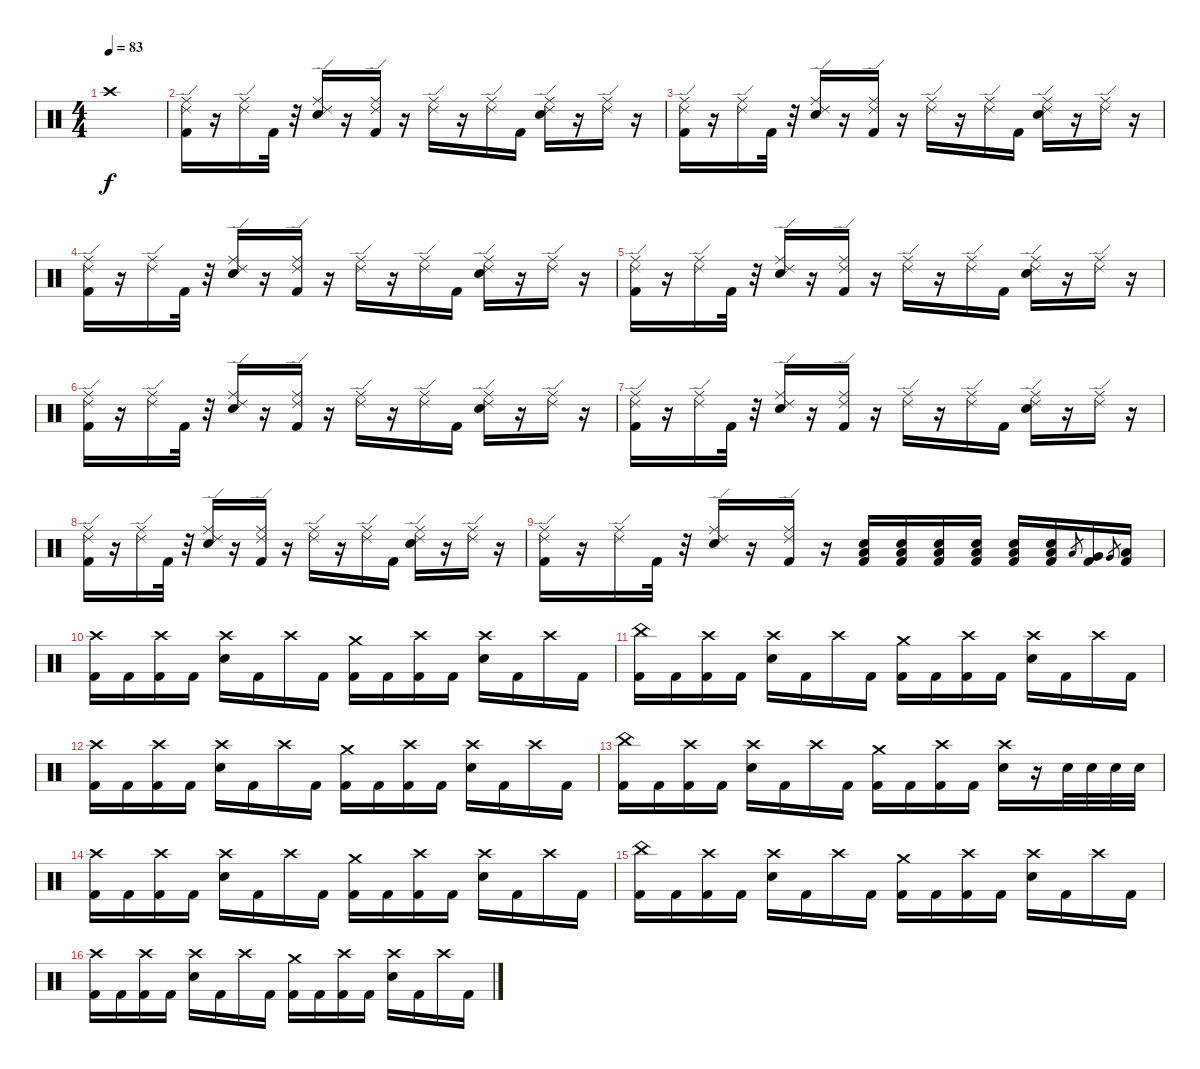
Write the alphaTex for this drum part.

\track "" {instrument percussion}
\staff {score}
\articulation defaults
\ts (4 4)
\tempo 83
\clef neutral
\ks c "Crash high (hit)".1{dy f}
|
("Ride (edge) 2" "Ride (middle)" "Kick (hit) 2").16 r.16 ("Ride (edge) 2" "Ride (middle)").16 "Kick (hit) 2".32 r.32 ("Ride (edge) 2" "Ride (middle)" "Snare (hit) 2").16 r.16 ("Ride (edge) 2" "Ride (middle)" "Kick (hit) 2").16 r.16 ("Ride (edge) 2" "Ride (middle)").16 r.16 ("Ride (edge) 2" "Ride (middle)").16 "Kick (hit) 2".16 ("Ride (edge) 2" "Ride (middle)" "Snare (hit) 2").16 r.16 ("Ride (edge) 2" "Ride (middle)").16 r.16 |
("Ride (edge) 2" "Ride (middle)" "Kick (hit) 2").16 r.16 ("Ride (edge) 2" "Ride (middle)").16 "Kick (hit) 2".32 r.32 ("Ride (edge) 2" "Ride (middle)" "Snare (hit) 2").16 r.16 ("Ride (edge) 2" "Ride (middle)" "Kick (hit) 2").16 r.16 ("Ride (edge) 2" "Ride (middle)").16 r.16 ("Ride (edge) 2" "Ride (middle)").16 "Kick (hit) 2".16 ("Ride (edge) 2" "Ride (middle)" "Snare (hit) 2").16 r.16 ("Ride (edge) 2" "Ride (middle)").16 r.16 |
("Ride (edge) 2" "Ride (middle)" "Kick (hit) 2").16 r.16 ("Ride (edge) 2" "Ride (middle)").16 "Kick (hit) 2".32 r.32 ("Ride (edge) 2" "Ride (middle)" "Snare (hit) 2").16 r.16 ("Ride (edge) 2" "Ride (middle)" "Kick (hit) 2").16 r.16 ("Ride (edge) 2" "Ride (middle)").16 r.16 ("Ride (edge) 2" "Ride (middle)").16 "Kick (hit) 2".16 ("Ride (edge) 2" "Ride (middle)" "Snare (hit) 2").16 r.16 ("Ride (edge) 2" "Ride (middle)").16 r.16 |
("Ride (edge) 2" "Ride (middle)" "Kick (hit) 2").16 r.16 ("Ride (edge) 2" "Ride (middle)").16 "Kick (hit) 2".32 r.32 ("Ride (edge) 2" "Ride (middle)" "Snare (hit) 2").16 r.16 ("Ride (edge) 2" "Ride (middle)" "Kick (hit) 2").16 r.16 ("Ride (edge) 2" "Ride (middle)").16 r.16 ("Ride (edge) 2" "Ride (middle)").16 "Kick (hit) 2".16 ("Ride (edge) 2" "Ride (middle)" "Snare (hit) 2").16 r.16 ("Ride (edge) 2" "Ride (middle)").16 r.16 |
("Ride (edge) 2" "Ride (middle)" "Kick (hit) 2").16 r.16 ("Ride (edge) 2" "Ride (middle)").16 "Kick (hit) 2".32 r.32 ("Ride (edge) 2" "Ride (middle)" "Snare (hit) 2").16 r.16 ("Ride (edge) 2" "Ride (middle)" "Kick (hit) 2").16 r.16 ("Ride (edge) 2" "Ride (middle)").16 r.16 ("Ride (edge) 2" "Ride (middle)").16 "Kick (hit) 2".16 ("Ride (edge) 2" "Ride (middle)" "Snare (hit) 2").16 r.16 ("Ride (edge) 2" "Ride (middle)").16 r.16 |
("Ride (edge) 2" "Ride (middle)" "Kick (hit) 2").16 r.16 ("Ride (edge) 2" "Ride (middle)").16 "Kick (hit) 2".32 r.32 ("Ride (edge) 2" "Ride (middle)" "Snare (hit) 2").16 r.16 ("Ride (edge) 2" "Ride (middle)" "Kick (hit) 2").16 r.16 ("Ride (edge) 2" "Ride (middle)").16 r.16 ("Ride (edge) 2" "Ride (middle)").16 "Kick (hit) 2".16 ("Ride (edge) 2" "Ride (middle)" "Snare (hit) 2").16 r.16 ("Ride (edge) 2" "Ride (middle)").16 r.16 |
("Ride (edge) 2" "Ride (middle)" "Kick (hit) 2").16 r.16 ("Ride (edge) 2" "Ride (middle)").16 "Kick (hit) 2".32 r.32 ("Ride (edge) 2" "Ride (middle)" "Snare (hit) 2").16 r.16 ("Ride (edge) 2" "Ride (middle)" "Kick (hit) 2").16 r.16 ("Ride (edge) 2" "Ride (middle)").16 r.16 ("Ride (edge) 2" "Ride (middle)").16 "Kick (hit) 2".16 ("Ride (edge) 2" "Ride (middle)" "Snare (hit) 2").16 r.16 ("Ride (edge) 2" "Ride (middle)").16 r.16 |
("Ride (edge) 2" "Ride (middle)" "Kick (hit) 2").16 r.16 ("Ride (edge) 2" "Ride (middle)").16 "Kick (hit) 2".32 r.32 ("Ride (edge) 2" "Ride (middle)" "Snare (hit) 2").16 r.16 ("Ride (edge) 2" "Ride (middle)" "Kick (hit) 2").16 r.16 ("Snare (hit) 2" "Low Tom (hit)" "Kick (hit) 2").16 ("Snare (hit) 2" "Low Tom (hit)" "Kick (hit) 2").16 ("Snare (hit) 2" "Low Tom (hit)" "Kick (hit) 2").16 ("Snare (hit) 2" "Low Tom (hit)" "Kick (hit) 2").16 ("Snare (hit) 2" "Low Tom (hit)" "Kick (hit) 2").16 ("Snare (hit) 2" "Low Tom (hit)" "Kick (hit) 2").16 "Low Floor Tom (hit)".8{gr} ("Very Low Tom (hit)" "Kick (hit) 2").16 "Very Low Tom (hit)".8{gr} ("Low Tom (hit)" "Kick (hit) 2").16 |
("Crash high (hit)" "Kick (hit) 2").16 "Kick (hit) 2".16 ("Crash high (hit)" "Kick (hit) 2").16 "Kick (hit) 2".16 ("Crash high (hit)" "Snare (hit) 2").16 "Kick (hit) 2".16 "Crash high (hit)".16 "Kick (hit) 2".16 ("Crash medium (hit)" "Kick (hit) 2").16 "Kick (hit) 2".16 ("Crash high (hit)" "Kick (hit) 2").16 "Kick (hit) 2".16 ("Crash high (hit)" "Snare (hit) 2").16 "Kick (hit) 2".16 "Crash high (hit)".16 "Kick (hit) 2".16 |
("China (hit)" "Kick (hit) 2").16 "Kick (hit) 2".16 ("Crash high (hit)" "Kick (hit) 2").16 "Kick (hit) 2".16 ("Crash high (hit)" "Snare (hit) 2").16 "Kick (hit) 2".16 "Crash high (hit)".16 "Kick (hit) 2".16 ("Crash medium (hit)" "Kick (hit) 2").16 "Kick (hit) 2".16 ("Crash high (hit)" "Kick (hit) 2").16 "Kick (hit) 2".16 ("Crash high (hit)" "Snare (hit) 2").16 "Kick (hit) 2".16 "Crash high (hit)".16 "Kick (hit) 2".16 |
("Crash high (hit)" "Kick (hit) 2").16 "Kick (hit) 2".16 ("Crash high (hit)" "Kick (hit) 2").16 "Kick (hit) 2".16 ("Crash high (hit)" "Snare (hit) 2").16 "Kick (hit) 2".16 "Crash high (hit)".16 "Kick (hit) 2".16 ("Crash medium (hit)" "Kick (hit) 2").16 "Kick (hit) 2".16 ("Crash high (hit)" "Kick (hit) 2").16 "Kick (hit) 2".16 ("Crash high (hit)" "Snare (hit) 2").16 "Kick (hit) 2".16 "Crash high (hit)".16 "Kick (hit) 2".16 |
("China (hit)" "Kick (hit) 2").16 "Kick (hit) 2".16 ("Crash high (hit)" "Kick (hit) 2").16 "Kick (hit) 2".16 ("Crash high (hit)" "Snare (hit) 2").16 "Kick (hit) 2".16 "Crash high (hit)".16 "Kick (hit) 2".16 ("Crash medium (hit)" "Kick (hit) 2").16 "Kick (hit) 2".16 ("Crash high (hit)" "Kick (hit) 2").16 "Kick (hit) 2".16 ("Crash high (hit)" "Snare (hit) 2").16 r.16 "Snare (hit) 2".32 "Snare (hit) 2".32 "Snare (hit) 2".32 "Snare (hit) 2".32 |
("Crash high (hit)" "Kick (hit) 2").16 "Kick (hit) 2".16 ("Crash high (hit)" "Kick (hit) 2").16 "Kick (hit) 2".16 ("Crash high (hit)" "Snare (hit) 2").16 "Kick (hit) 2".16 "Crash high (hit)".16 "Kick (hit) 2".16 ("Crash medium (hit)" "Kick (hit) 2").16 "Kick (hit) 2".16 ("Crash high (hit)" "Kick (hit) 2").16 "Kick (hit) 2".16 ("Crash high (hit)" "Snare (hit) 2").16 "Kick (hit) 2".16 "Crash high (hit)".16 "Kick (hit) 2".16 |
("China (hit)" "Kick (hit) 2").16 "Kick (hit) 2".16 ("Crash high (hit)" "Kick (hit) 2").16 "Kick (hit) 2".16 ("Crash high (hit)" "Snare (hit) 2").16 "Kick (hit) 2".16 "Crash high (hit)".16 "Kick (hit) 2".16 ("Crash medium (hit)" "Kick (hit) 2").16 "Kick (hit) 2".16 ("Crash high (hit)" "Kick (hit) 2").16 "Kick (hit) 2".16 ("Crash high (hit)" "Snare (hit) 2").16 "Kick (hit) 2".16 "Crash high (hit)".16 "Kick (hit) 2".16 |
("Crash high (hit)" "Kick (hit) 2").16 "Kick (hit) 2".16 ("Crash high (hit)" "Kick (hit) 2").16 "Kick (hit) 2".16 ("Crash high (hit)" "Snare (hit) 2").16 "Kick (hit) 2".16 "Crash high (hit)".16 "Kick (hit) 2".16 ("Crash medium (hit)" "Kick (hit) 2").16 "Kick (hit) 2".16 ("Crash high (hit)" "Kick (hit) 2").16 "Kick (hit) 2".16 ("Crash high (hit)" "Snare (hit) 2").16 "Kick (hit) 2".16 "Crash high (hit)".16 "Kick (hit) 2".16
